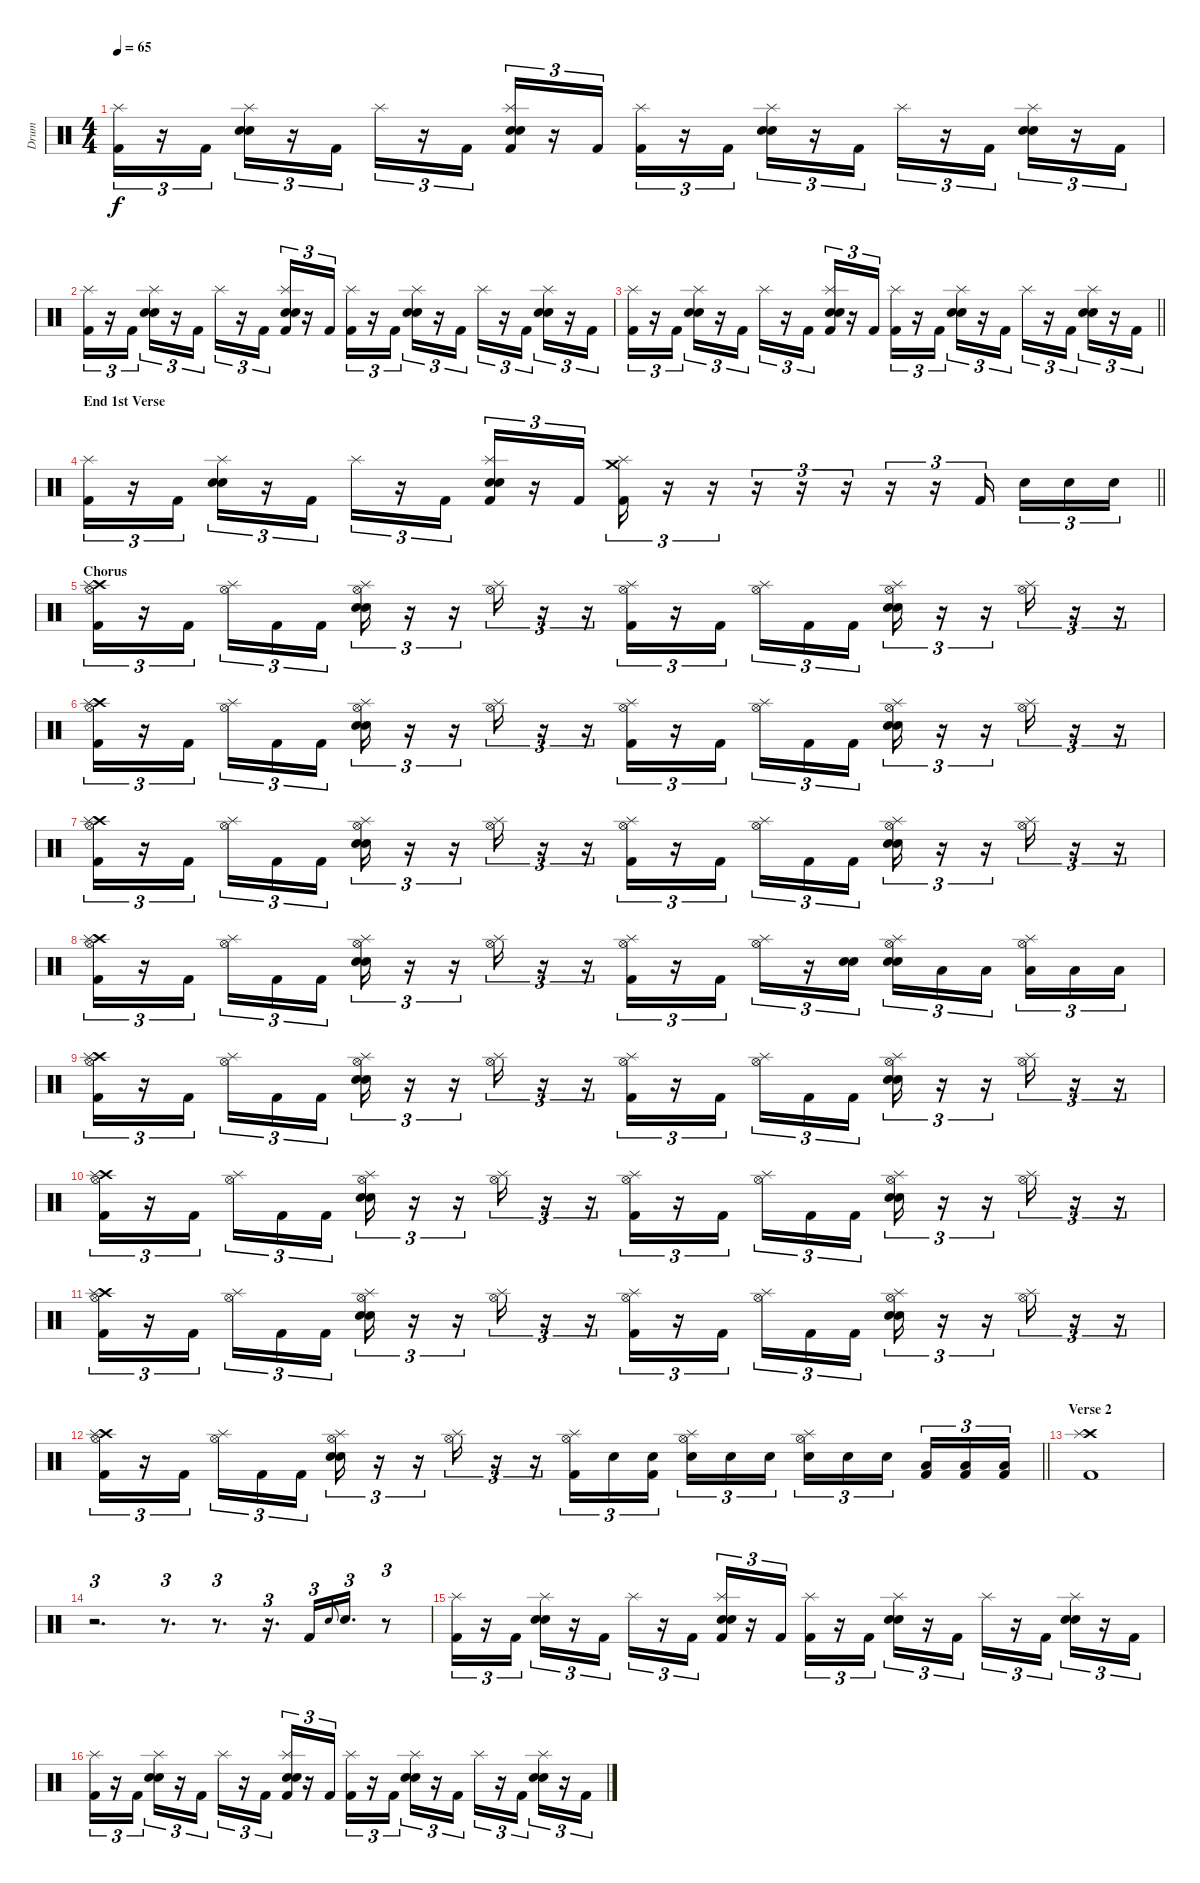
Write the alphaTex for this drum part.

\track ("Drum" "Drum") {instrument percussion}
\staff {score}
\articulation defaults
\ts (4 4)
\tempo 65
\clef neutral
\ks c
("Kick (hit) 2" "Splash (hit)").16{tu (3 2) dy f} r.16{tu (3 2)} "Kick (hit) 2".16{tu (3 2)} ("Electric Snare (hit)" "Electric Snare (hit)" "Splash (hit)").16{tu (3 2)} r.16{tu (3 2)} "Kick (hit) 2".16{tu (3 2)} "Splash (hit)".16{tu (3 2)} r.16{tu (3 2)} "Kick (hit) 2".16{tu (3 2)} ("Electric Snare (hit)" "Electric Snare (hit)" "Kick (hit) 2" "Splash (hit)").16{tu (3 2)} r.16{tu (3 2)} "Kick (hit) 2".16{tu (3 2)} ("Kick (hit) 2" "Splash (hit)").16{tu (3 2)} r.16{tu (3 2)} "Kick (hit) 2".16{tu (3 2)} ("Electric Snare (hit)" "Electric Snare (hit)" "Splash (hit)").16{tu (3 2)} r.16{tu (3 2)} "Kick (hit) 2".16{tu (3 2)} "Splash (hit)".16{tu (3 2)} r.16{tu (3 2)} "Kick (hit) 2".16{tu (3 2)} ("Electric Snare (hit)" "Electric Snare (hit)" "Splash (hit)").16{tu (3 2)} r.16{tu (3 2)} "Kick (hit) 2".16{tu (3 2)} |
("Kick (hit) 2" "Splash (hit)").16{tu (3 2)} r.16{tu (3 2)} "Kick (hit) 2".16{tu (3 2)} ("Electric Snare (hit)" "Electric Snare (hit)" "Splash (hit)").16{tu (3 2)} r.16{tu (3 2)} "Kick (hit) 2".16{tu (3 2)} "Splash (hit)".16{tu (3 2)} r.16{tu (3 2)} "Kick (hit) 2".16{tu (3 2)} ("Electric Snare (hit)" "Electric Snare (hit)" "Kick (hit) 2" "Splash (hit)").16{tu (3 2)} r.16{tu (3 2)} "Kick (hit) 2".16{tu (3 2)} ("Kick (hit) 2" "Splash (hit)").16{tu (3 2)} r.16{tu (3 2)} "Kick (hit) 2".16{tu (3 2)} ("Electric Snare (hit)" "Electric Snare (hit)" "Splash (hit)").16{tu (3 2)} r.16{tu (3 2)} "Kick (hit) 2".16{tu (3 2)} "Splash (hit)".16{tu (3 2)} r.16{tu (3 2)} "Kick (hit) 2".16{tu (3 2)} ("Electric Snare (hit)" "Electric Snare (hit)" "Splash (hit)").16{tu (3 2)} r.16{tu (3 2)} "Kick (hit) 2".16{tu (3 2)} |
\barLineRight lightlight
("Kick (hit) 2" "Splash (hit)").16{tu (3 2)} r.16{tu (3 2)} "Kick (hit) 2".16{tu (3 2)} ("Electric Snare (hit)" "Electric Snare (hit)" "Splash (hit)").16{tu (3 2)} r.16{tu (3 2)} "Kick (hit) 2".16{tu (3 2)} "Splash (hit)".16{tu (3 2)} r.16{tu (3 2)} "Kick (hit) 2".16{tu (3 2)} ("Electric Snare (hit)" "Electric Snare (hit)" "Kick (hit) 2" "Splash (hit)").16{tu (3 2)} r.16{tu (3 2)} "Kick (hit) 2".16{tu (3 2)} ("Kick (hit) 2" "Splash (hit)").16{tu (3 2)} r.16{tu (3 2)} "Kick (hit) 2".16{tu (3 2)} ("Electric Snare (hit)" "Electric Snare (hit)" "Splash (hit)").16{tu (3 2)} r.16{tu (3 2)} "Kick (hit) 2".16{tu (3 2)} "Splash (hit)".16{tu (3 2)} r.16{tu (3 2)} "Kick (hit) 2".16{tu (3 2)} ("Electric Snare (hit)" "Electric Snare (hit)" "Splash (hit)").16{tu (3 2)} r.16{tu (3 2)} "Kick (hit) 2".16{tu (3 2)} |
\section ("" "End 1st Verse")
\barLineRight lightlight
("Kick (hit) 2" "Splash (hit)").16{tu (3 2)} r.16{tu (3 2)} "Kick (hit) 2".16{tu (3 2)} ("Electric Snare (hit)" "Electric Snare (hit)" "Splash (hit)").16{tu (3 2)} r.16{tu (3 2)} "Kick (hit) 2".16{tu (3 2)} "Splash (hit)".16{tu (3 2)} r.16{tu (3 2)} "Kick (hit) 2".16{tu (3 2)} ("Electric Snare (hit)" "Electric Snare (hit)" "Kick (hit) 2" "Splash (hit)").16{tu (3 2)} r.16{tu (3 2)} "Kick (hit) 2".16{tu (3 2)} ("Crash medium (hit)" "Kick (hit) 2" "Splash (hit)").16{tu (3 2)} r.16{tu (3 2)} r.16{tu (3 2)} r.16{tu (3 2)} r.16{tu (3 2)} r.16{tu (3 2)} r.16{tu (3 2)} r.16{tu (3 2)} "Kick (hit) 2".16{tu (3 2) beam splitsecondary} "Electric Snare (hit)".16{tu (3 2)} "Electric Snare (hit)".16{tu (3 2)} "Electric Snare (hit)".16{tu (3 2)} |
\section ("" "Chorus")
("Hi-Hat (open)" "Crash high (hit)" "Kick (hit) 2" "Splash (hit)").16{tu (3 2)} r.16{tu (3 2)} "Kick (hit) 2".16{tu (3 2) beam splitsecondary} ("Hi-Hat (open)" "Splash (hit)").16{tu (3 2)} "Kick (hit) 2".16{tu (3 2)} "Kick (hit) 2".16{tu (3 2)} ("Hi-Hat (open)" "Electric Snare (hit)" "Electric Snare (hit)" "Splash (hit)").16{tu (3 2)} r.16{tu (3 2)} r.16{tu (3 2)} ("Hi-Hat (open)" "Splash (hit)").16{tu (3 2)} r.16{tu (3 2)} r.16{tu (3 2)} ("Hi-Hat (open)" "Kick (hit) 2" "Splash (hit)").16{tu (3 2)} r.16{tu (3 2)} "Kick (hit) 2".16{tu (3 2) beam splitsecondary} ("Hi-Hat (open)" "Splash (hit)").16{tu (3 2)} "Kick (hit) 2".16{tu (3 2)} "Kick (hit) 2".16{tu (3 2)} ("Hi-Hat (open)" "Electric Snare (hit)" "Electric Snare (hit)" "Splash (hit)").16{tu (3 2)} r.16{tu (3 2)} r.16{tu (3 2)} ("Hi-Hat (open)" "Splash (hit)").16{tu (3 2)} r.16{tu (3 2)} r.16{tu (3 2)} |
("Hi-Hat (open)" "Crash high (hit)" "Kick (hit) 2" "Splash (hit)").16{tu (3 2)} r.16{tu (3 2)} "Kick (hit) 2".16{tu (3 2) beam splitsecondary} ("Hi-Hat (open)" "Splash (hit)").16{tu (3 2)} "Kick (hit) 2".16{tu (3 2)} "Kick (hit) 2".16{tu (3 2)} ("Hi-Hat (open)" "Electric Snare (hit)" "Electric Snare (hit)" "Splash (hit)").16{tu (3 2)} r.16{tu (3 2)} r.16{tu (3 2)} ("Hi-Hat (open)" "Splash (hit)").16{tu (3 2)} r.16{tu (3 2)} r.16{tu (3 2)} ("Hi-Hat (open)" "Kick (hit) 2" "Splash (hit)").16{tu (3 2)} r.16{tu (3 2)} "Kick (hit) 2".16{tu (3 2) beam splitsecondary} ("Hi-Hat (open)" "Splash (hit)").16{tu (3 2)} "Kick (hit) 2".16{tu (3 2)} "Kick (hit) 2".16{tu (3 2)} ("Hi-Hat (open)" "Electric Snare (hit)" "Electric Snare (hit)" "Splash (hit)").16{tu (3 2)} r.16{tu (3 2)} r.16{tu (3 2)} ("Hi-Hat (open)" "Splash (hit)").16{tu (3 2)} r.16{tu (3 2)} r.16{tu (3 2)} |
("Hi-Hat (open)" "Crash high (hit)" "Kick (hit) 2" "Splash (hit)").16{tu (3 2)} r.16{tu (3 2)} "Kick (hit) 2".16{tu (3 2) beam splitsecondary} ("Hi-Hat (open)" "Splash (hit)").16{tu (3 2)} "Kick (hit) 2".16{tu (3 2)} "Kick (hit) 2".16{tu (3 2)} ("Hi-Hat (open)" "Electric Snare (hit)" "Electric Snare (hit)" "Splash (hit)").16{tu (3 2)} r.16{tu (3 2)} r.16{tu (3 2)} ("Hi-Hat (open)" "Splash (hit)").16{tu (3 2)} r.16{tu (3 2)} r.16{tu (3 2)} ("Hi-Hat (open)" "Kick (hit) 2" "Splash (hit)").16{tu (3 2)} r.16{tu (3 2)} "Kick (hit) 2".16{tu (3 2) beam splitsecondary} ("Hi-Hat (open)" "Splash (hit)").16{tu (3 2)} "Kick (hit) 2".16{tu (3 2)} "Kick (hit) 2".16{tu (3 2)} ("Hi-Hat (open)" "Electric Snare (hit)" "Electric Snare (hit)" "Splash (hit)").16{tu (3 2)} r.16{tu (3 2)} r.16{tu (3 2)} ("Hi-Hat (open)" "Splash (hit)").16{tu (3 2)} r.16{tu (3 2)} r.16{tu (3 2)} |
("Hi-Hat (open)" "Crash high (hit)" "Kick (hit) 2" "Splash (hit)").16{tu (3 2)} r.16{tu (3 2)} "Kick (hit) 2".16{tu (3 2) beam splitsecondary} ("Hi-Hat (open)" "Splash (hit)").16{tu (3 2)} "Kick (hit) 2".16{tu (3 2)} "Kick (hit) 2".16{tu (3 2)} ("Hi-Hat (open)" "Electric Snare (hit)" "Electric Snare (hit)" "Splash (hit)").16{tu (3 2)} r.16{tu (3 2)} r.16{tu (3 2)} ("Hi-Hat (open)" "Splash (hit)").16{tu (3 2)} r.16{tu (3 2)} r.16{tu (3 2)} ("Hi-Hat (open)" "Kick (hit) 2" "Splash (hit)").16{tu (3 2)} r.16{tu (3 2)} "Kick (hit) 2".16{tu (3 2)} ("Hi-Hat (open)" "Splash (hit)").16{tu (3 2)} r.16{tu (3 2)} ("Electric Snare (hit)" "Electric Snare (hit)").16{tu (3 2)} ("Hi-Hat (open)" "Electric Snare (hit)" "Electric Snare (hit)" "Splash (hit)").16{tu (3 2)} "Low Tom (hit)".16{tu (3 2)} "Low Tom (hit)".16{tu (3 2) beam splitsecondary} ("Hi-Hat (open)" "Low Tom (hit)" "Splash (hit)").16{tu (3 2)} "Low Tom (hit)".16{tu (3 2)} "Low Tom (hit)".16{tu (3 2)} |
("Hi-Hat (open)" "Crash high (hit)" "Kick (hit) 2" "Splash (hit)").16{tu (3 2)} r.16{tu (3 2)} "Kick (hit) 2".16{tu (3 2) beam splitsecondary} ("Hi-Hat (open)" "Splash (hit)").16{tu (3 2)} "Kick (hit) 2".16{tu (3 2)} "Kick (hit) 2".16{tu (3 2)} ("Hi-Hat (open)" "Electric Snare (hit)" "Electric Snare (hit)" "Splash (hit)").16{tu (3 2)} r.16{tu (3 2)} r.16{tu (3 2)} ("Hi-Hat (open)" "Splash (hit)").16{tu (3 2)} r.16{tu (3 2)} r.16{tu (3 2)} ("Hi-Hat (open)" "Kick (hit) 2" "Splash (hit)").16{tu (3 2)} r.16{tu (3 2)} "Kick (hit) 2".16{tu (3 2) beam splitsecondary} ("Hi-Hat (open)" "Splash (hit)").16{tu (3 2)} "Kick (hit) 2".16{tu (3 2)} "Kick (hit) 2".16{tu (3 2)} ("Hi-Hat (open)" "Electric Snare (hit)" "Electric Snare (hit)" "Splash (hit)").16{tu (3 2)} r.16{tu (3 2)} r.16{tu (3 2)} ("Hi-Hat (open)" "Splash (hit)").16{tu (3 2)} r.16{tu (3 2)} r.16{tu (3 2)} |
("Hi-Hat (open)" "Crash high (hit)" "Kick (hit) 2" "Splash (hit)").16{tu (3 2)} r.16{tu (3 2)} "Kick (hit) 2".16{tu (3 2) beam splitsecondary} ("Hi-Hat (open)" "Splash (hit)").16{tu (3 2)} "Kick (hit) 2".16{tu (3 2)} "Kick (hit) 2".16{tu (3 2)} ("Hi-Hat (open)" "Electric Snare (hit)" "Electric Snare (hit)" "Splash (hit)").16{tu (3 2)} r.16{tu (3 2)} r.16{tu (3 2)} ("Hi-Hat (open)" "Splash (hit)").16{tu (3 2)} r.16{tu (3 2)} r.16{tu (3 2)} ("Hi-Hat (open)" "Kick (hit) 2" "Splash (hit)").16{tu (3 2)} r.16{tu (3 2)} "Kick (hit) 2".16{tu (3 2) beam splitsecondary} ("Hi-Hat (open)" "Splash (hit)").16{tu (3 2)} "Kick (hit) 2".16{tu (3 2)} "Kick (hit) 2".16{tu (3 2)} ("Hi-Hat (open)" "Electric Snare (hit)" "Electric Snare (hit)" "Splash (hit)").16{tu (3 2)} r.16{tu (3 2)} r.16{tu (3 2)} ("Hi-Hat (open)" "Splash (hit)").16{tu (3 2)} r.16{tu (3 2)} r.16{tu (3 2)} |
("Hi-Hat (open)" "Crash high (hit)" "Kick (hit) 2" "Splash (hit)").16{tu (3 2)} r.16{tu (3 2)} "Kick (hit) 2".16{tu (3 2) beam splitsecondary} ("Hi-Hat (open)" "Splash (hit)").16{tu (3 2)} "Kick (hit) 2".16{tu (3 2)} "Kick (hit) 2".16{tu (3 2)} ("Hi-Hat (open)" "Electric Snare (hit)" "Electric Snare (hit)" "Splash (hit)").16{tu (3 2)} r.16{tu (3 2)} r.16{tu (3 2)} ("Hi-Hat (open)" "Splash (hit)").16{tu (3 2)} r.16{tu (3 2)} r.16{tu (3 2)} ("Hi-Hat (open)" "Kick (hit) 2" "Splash (hit)").16{tu (3 2)} r.16{tu (3 2)} "Kick (hit) 2".16{tu (3 2) beam splitsecondary} ("Hi-Hat (open)" "Splash (hit)").16{tu (3 2)} "Kick (hit) 2".16{tu (3 2)} "Kick (hit) 2".16{tu (3 2)} ("Hi-Hat (open)" "Electric Snare (hit)" "Electric Snare (hit)" "Splash (hit)").16{tu (3 2)} r.16{tu (3 2)} r.16{tu (3 2)} ("Hi-Hat (open)" "Splash (hit)").16{tu (3 2)} r.16{tu (3 2)} r.16{tu (3 2)} |
\barLineRight lightlight
("Hi-Hat (open)" "Crash high (hit)" "Kick (hit) 2" "Splash (hit)").16{tu (3 2)} r.16{tu (3 2)} "Kick (hit) 2".16{tu (3 2) beam splitsecondary} ("Hi-Hat (open)" "Splash (hit)").16{tu (3 2)} "Kick (hit) 2".16{tu (3 2)} "Kick (hit) 2".16{tu (3 2)} ("Hi-Hat (open)" "Electric Snare (hit)" "Electric Snare (hit)" "Splash (hit)").16{tu (3 2)} r.16{tu (3 2)} r.16{tu (3 2)} ("Hi-Hat (open)" "Splash (hit)").16{tu (3 2)} r.16{tu (3 2)} r.16{tu (3 2)} ("Hi-Hat (open)" "Kick (hit) 2" "Splash (hit)").16{tu (3 2)} "Electric Snare (hit)".16{tu (3 2)} ("Electric Snare (hit)" "Kick (hit) 2").16{tu (3 2) beam splitsecondary} ("Hi-Hat (open)" "Electric Snare (hit)" "Splash (hit)").16{tu (3 2)} "Electric Snare (hit)".16{tu (3 2)} "Electric Snare (hit)".16{tu (3 2)} ("Hi-Hat (open)" "Electric Snare (hit)" "Splash (hit)").16{tu (3 2)} "Electric Snare (hit)".16{tu (3 2)} "Electric Snare (hit)".16{tu (3 2) beam splitsecondary} ("Low Tom (hit)" "Kick (hit) 2").16{tu (3 2)} ("Low Tom (hit)" "Kick (hit) 2").16{tu (3 2)} ("Low Tom (hit)" "Kick (hit) 2").16{tu (3 2)} |
\section ("" "Verse 2")
("Crash high (hit)" "Kick (hit) 2" "Splash (hit)").1 |
r.2{d tu (3 2)} r.8{d tu (3 2)} r.8{d tu (3 2)} r.16{d tu (3 2)} "Kick (hit) 2".16{tu (3 2)} "Electric Snare (hit)".8{gr onbeat} "Electric Snare (hit)".16{d tu (3 2)} r.8{tu (3 2)} |
("Kick (hit) 2" "Splash (hit)").16{tu (3 2)} r.16{tu (3 2)} "Kick (hit) 2".16{tu (3 2)} ("Electric Snare (hit)" "Electric Snare (hit)" "Splash (hit)").16{tu (3 2)} r.16{tu (3 2)} "Kick (hit) 2".16{tu (3 2)} "Splash (hit)".16{tu (3 2)} r.16{tu (3 2)} "Kick (hit) 2".16{tu (3 2)} ("Electric Snare (hit)" "Electric Snare (hit)" "Kick (hit) 2" "Splash (hit)").16{tu (3 2)} r.16{tu (3 2)} "Kick (hit) 2".16{tu (3 2)} ("Kick (hit) 2" "Splash (hit)").16{tu (3 2)} r.16{tu (3 2)} "Kick (hit) 2".16{tu (3 2)} ("Electric Snare (hit)" "Electric Snare (hit)" "Splash (hit)").16{tu (3 2)} r.16{tu (3 2)} "Kick (hit) 2".16{tu (3 2)} "Splash (hit)".16{tu (3 2)} r.16{tu (3 2)} "Kick (hit) 2".16{tu (3 2)} ("Electric Snare (hit)" "Electric Snare (hit)" "Splash (hit)").16{tu (3 2)} r.16{tu (3 2)} "Kick (hit) 2".16{tu (3 2)} |
("Kick (hit) 2" "Splash (hit)").16{tu (3 2)} r.16{tu (3 2)} "Kick (hit) 2".16{tu (3 2)} ("Electric Snare (hit)" "Electric Snare (hit)" "Splash (hit)").16{tu (3 2)} r.16{tu (3 2)} "Kick (hit) 2".16{tu (3 2)} "Splash (hit)".16{tu (3 2)} r.16{tu (3 2)} "Kick (hit) 2".16{tu (3 2)} ("Electric Snare (hit)" "Electric Snare (hit)" "Kick (hit) 2" "Splash (hit)").16{tu (3 2)} r.16{tu (3 2)} "Kick (hit) 2".16{tu (3 2)} ("Kick (hit) 2" "Splash (hit)").16{tu (3 2)} r.16{tu (3 2)} "Kick (hit) 2".16{tu (3 2)} ("Electric Snare (hit)" "Electric Snare (hit)" "Splash (hit)").16{tu (3 2)} r.16{tu (3 2)} "Kick (hit) 2".16{tu (3 2)} "Splash (hit)".16{tu (3 2)} r.16{tu (3 2)} "Kick (hit) 2".16{tu (3 2)} ("Electric Snare (hit)" "Electric Snare (hit)" "Splash (hit)").16{tu (3 2)} r.16{tu (3 2)} "Kick (hit) 2".16{tu (3 2)}
